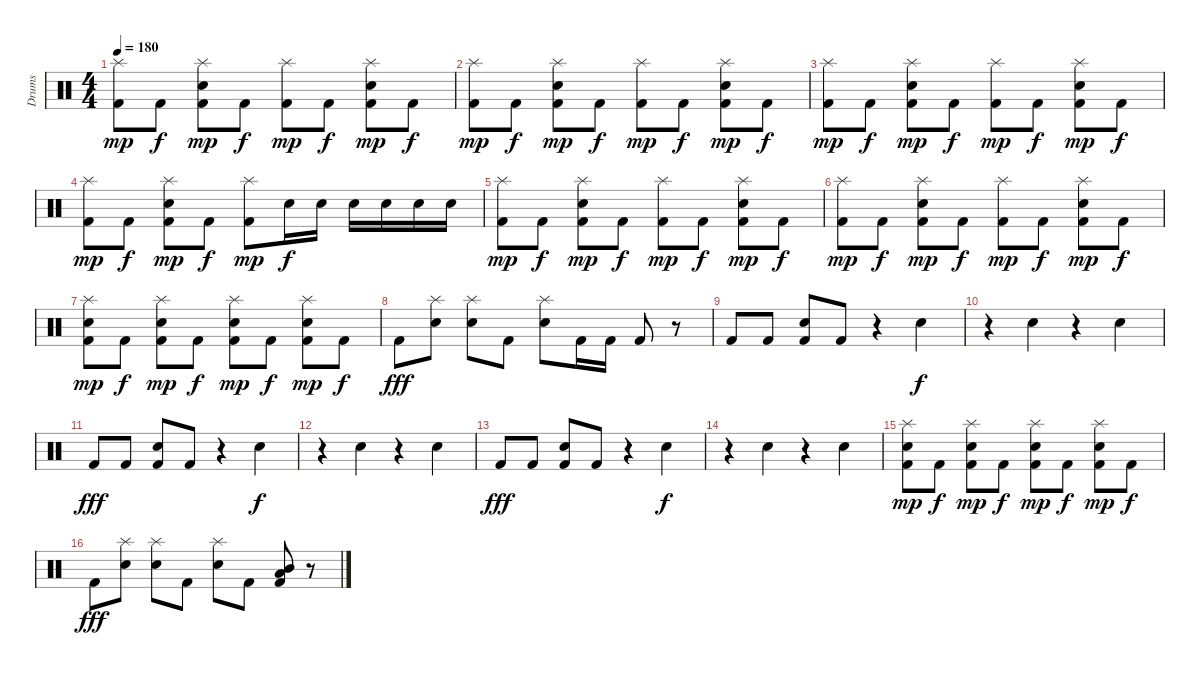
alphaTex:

\track ("Drums" "Drums") {instrument percussion}
\staff {score}
\articulation defaults
\ts (4 4)
\tempo 180
\clef neutral
\ks c
("Splash (hit)" "Kick (hit) 2").8{dy mp} "Kick (hit) 2".8{dy f} ("Splash (hit)" "Snare (hit) 2" "Kick (hit) 2").8{dy mp} "Kick (hit) 2".8{dy f} ("Splash (hit)" "Kick (hit) 2").8{dy mp} "Kick (hit) 2".8{dy f} ("Splash (hit)" "Snare (hit) 2" "Kick (hit) 2").8{dy mp} "Kick (hit) 2".8{dy f} |
("Splash (hit)" "Kick (hit) 2").8{dy mp} "Kick (hit) 2".8{dy f} ("Splash (hit)" "Snare (hit) 2" "Kick (hit) 2").8{dy mp} "Kick (hit) 2".8{dy f} ("Splash (hit)" "Kick (hit) 2").8{dy mp} "Kick (hit) 2".8{dy f} ("Splash (hit)" "Snare (hit) 2" "Kick (hit) 2").8{dy mp} "Kick (hit) 2".8{dy f} |
("Splash (hit)" "Kick (hit) 2").8{dy mp} "Kick (hit) 2".8{dy f} ("Splash (hit)" "Snare (hit) 2" "Kick (hit) 2").8{dy mp} "Kick (hit) 2".8{dy f} ("Splash (hit)" "Kick (hit) 2").8{dy mp} "Kick (hit) 2".8{dy f} ("Splash (hit)" "Snare (hit) 2" "Kick (hit) 2").8{dy mp} "Kick (hit) 2".8{dy f} |
("Splash (hit)" "Kick (hit) 2").8{dy mp} "Kick (hit) 2".8{dy f} ("Splash (hit)" "Snare (hit) 2" "Kick (hit) 2").8{dy mp} "Kick (hit) 2".8{dy f} ("Splash (hit)" "Kick (hit) 2").8{dy mp} "Snare (hit) 2".16{dy f} "Snare (hit) 2".16 "Snare (hit) 2".16 "Snare (hit) 2".16 "Snare (hit) 2".16 "Snare (hit) 2".16 |
("Splash (hit)" "Kick (hit) 2").8{dy mp} "Kick (hit) 2".8{dy f} ("Splash (hit)" "Snare (hit) 2" "Kick (hit) 2").8{dy mp} "Kick (hit) 2".8{dy f} ("Splash (hit)" "Kick (hit) 2").8{dy mp} "Kick (hit) 2".8{dy f} ("Splash (hit)" "Snare (hit) 2" "Kick (hit) 2").8{dy mp} "Kick (hit) 2".8{dy f} |
("Splash (hit)" "Kick (hit) 2").8{dy mp} "Kick (hit) 2".8{dy f} ("Splash (hit)" "Snare (hit) 2" "Kick (hit) 2").8{dy mp} "Kick (hit) 2".8{dy f} ("Splash (hit)" "Kick (hit) 2").8{dy mp} "Kick (hit) 2".8{dy f} ("Splash (hit)" "Snare (hit) 2" "Kick (hit) 2").8{dy mp} "Kick (hit) 2".8{dy f} |
("Splash (hit)" "Snare (hit) 2" "Kick (hit) 2").8{dy mp} "Kick (hit) 2".8{dy f} ("Splash (hit)" "Snare (hit) 2" "Kick (hit) 2").8{dy mp} "Kick (hit) 2".8{dy f} ("Splash (hit)" "Snare (hit) 2" "Kick (hit) 2").8{dy mp} "Kick (hit) 2".8{dy f} ("Splash (hit)" "Snare (hit) 2" "Kick (hit) 2").8{dy mp} "Kick (hit) 2".8{dy f} |
"Kick (hit) 2".8{dy fff} ("Splash (hit)" "Snare (hit) 2").8 ("Splash (hit)" "Snare (hit) 2").8 "Kick (hit) 2".8 ("Splash (hit)" "Snare (hit) 2").8 "Kick (hit) 2".16 "Kick (hit) 2".16 "Kick (hit) 2".8 r.8 |
"Kick (hit) 2".8 "Kick (hit) 2".8 ("Snare (hit) 2" "Kick (hit) 2").8 "Kick (hit) 2".8 r.4 "Snare (hit) 2".4{dy f} |
r.4 "Snare (hit) 2".4 r.4 "Snare (hit) 2".4 |
"Kick (hit) 2".8{dy fff} "Kick (hit) 2".8 ("Snare (hit) 2" "Kick (hit) 2").8 "Kick (hit) 2".8 r.4 "Snare (hit) 2".4{dy f} |
r.4 "Snare (hit) 2".4 r.4 "Snare (hit) 2".4 |
"Kick (hit) 2".8{dy fff} "Kick (hit) 2".8 ("Snare (hit) 2" "Kick (hit) 2").8 "Kick (hit) 2".8 r.4 "Snare (hit) 2".4{dy f} |
r.4 "Snare (hit) 2".4 r.4 "Snare (hit) 2".4 |
("Splash (hit)" "Snare (hit) 2" "Kick (hit) 2").8{dy mp} "Kick (hit) 2".8{dy f} ("Splash (hit)" "Snare (hit) 2" "Kick (hit) 2").8{dy mp} "Kick (hit) 2".8{dy f} ("Splash (hit)" "Snare (hit) 2" "Kick (hit) 2").8{dy mp} "Kick (hit) 2".8{dy f} ("Splash (hit)" "Snare (hit) 2" "Kick (hit) 2").8{dy mp} "Kick (hit) 2".8{dy f} |
"Kick (hit) 2".8{dy fff} ("Splash (hit)" "Snare (hit) 2").8 ("Splash (hit)" "Snare (hit) 2").8 "Kick (hit) 2".8 ("Splash (hit)" "Snare (hit) 2").8 "Kick (hit) 2".8 ("Low Tom (hit)" "Mid Tom (hit)" "Kick (hit) 2").8 r.8
